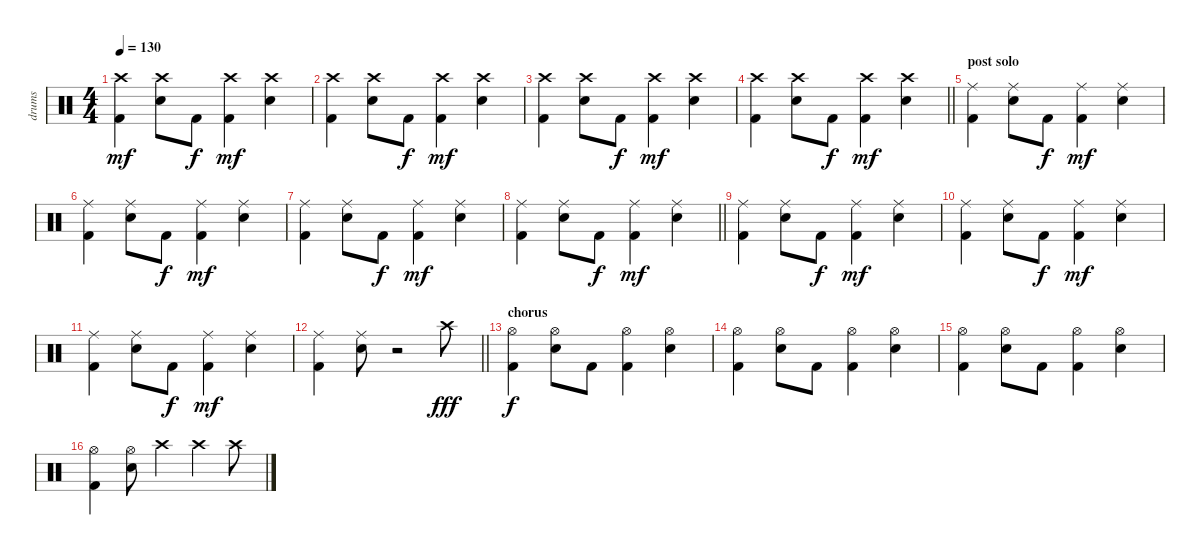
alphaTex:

\track ("drums" "drums") {instrument percussion}
\staff {score}
\articulation defaults
\ts (4 4)
\tempo 130
\clef neutral
\ks c
("Crash high (hit)" "Kick (hit) 2").4{dy mf} ("Crash high (hit)" "Snare (hit) 2").8 "Kick (hit) 2".8{dy f} ("Crash high (hit)" "Kick (hit) 2").4{dy mf} ("Crash high (hit)" "Snare (hit) 2").4 |
("Crash high (hit)" "Kick (hit) 2").4 ("Crash high (hit)" "Snare (hit) 2").8 "Kick (hit) 2".8{dy f} ("Crash high (hit)" "Kick (hit) 2").4{dy mf} ("Crash high (hit)" "Snare (hit) 2").4 |
("Crash high (hit)" "Kick (hit) 2").4 ("Crash high (hit)" "Snare (hit) 2").8 "Kick (hit) 2".8{dy f} ("Crash high (hit)" "Kick (hit) 2").4{dy mf} ("Crash high (hit)" "Snare (hit) 2").4 |
\barLineRight lightlight
("Crash high (hit)" "Kick (hit) 2").4 ("Crash high (hit)" "Snare (hit) 2").8 "Kick (hit) 2".8{dy f} ("Crash high (hit)" "Kick (hit) 2").4{dy mf} ("Crash high (hit)" "Snare (hit) 2").4 |
\section ("" "post solo")
("Ride (middle)" "Kick (hit) 2").4 ("Ride (middle)" "Snare (hit) 2").8 "Kick (hit) 2".8{dy f} ("Ride (middle)" "Kick (hit) 2").4{dy mf} ("Ride (middle)" "Snare (hit) 2").4 |
("Ride (middle)" "Kick (hit) 2").4 ("Ride (middle)" "Snare (hit) 2").8 "Kick (hit) 2".8{dy f} ("Ride (middle)" "Kick (hit) 2").4{dy mf} ("Ride (middle)" "Snare (hit) 2").4 |
("Ride (middle)" "Kick (hit) 2").4 ("Ride (middle)" "Snare (hit) 2").8 "Kick (hit) 2".8{dy f} ("Ride (middle)" "Kick (hit) 2").4{dy mf} ("Ride (middle)" "Snare (hit) 2").4 |
\barLineRight lightlight
("Ride (middle)" "Kick (hit) 2").4 ("Ride (middle)" "Snare (hit) 2").8 "Kick (hit) 2".8{dy f} ("Ride (middle)" "Kick (hit) 2").4{dy mf} ("Ride (middle)" "Snare (hit) 2").4 |
("Ride (middle)" "Kick (hit) 2").4 ("Ride (middle)" "Snare (hit) 2").8 "Kick (hit) 2".8{dy f} ("Ride (middle)" "Kick (hit) 2").4{dy mf} ("Ride (middle)" "Snare (hit) 2").4 |
("Ride (middle)" "Kick (hit) 2").4 ("Ride (middle)" "Snare (hit) 2").8 "Kick (hit) 2".8{dy f} ("Ride (middle)" "Kick (hit) 2").4{dy mf} ("Ride (middle)" "Snare (hit) 2").4 |
("Ride (middle)" "Kick (hit) 2").4 ("Ride (middle)" "Snare (hit) 2").8 "Kick (hit) 2".8{dy f} ("Ride (middle)" "Kick (hit) 2").4{dy mf} ("Ride (middle)" "Snare (hit) 2").4 |
\barLineRight lightlight
("Ride (middle)" "Kick (hit) 2").4 ("Ride (middle)" "Snare (hit) 2").8 r.2 "Crash high (hit)".8{dy fff} |
\section ("" "chorus ")
("Hi-Hat (open)" "Kick (hit) 2").4{dy f} ("Hi-Hat (open)" "Snare (hit) 2").8 "Kick (hit) 2".8 ("Hi-Hat (open)" "Kick (hit) 2").4 ("Hi-Hat (open)" "Snare (hit) 2").4 |
("Hi-Hat (open)" "Kick (hit) 2").4 ("Hi-Hat (open)" "Snare (hit) 2").8 "Kick (hit) 2".8 ("Hi-Hat (open)" "Kick (hit) 2").4 ("Hi-Hat (open)" "Snare (hit) 2").4 |
("Hi-Hat (open)" "Kick (hit) 2").4 ("Hi-Hat (open)" "Snare (hit) 2").8 "Kick (hit) 2".8 ("Hi-Hat (open)" "Kick (hit) 2").4 ("Hi-Hat (open)" "Snare (hit) 2").4 |
("Hi-Hat (open)" "Kick (hit) 2").4 ("Hi-Hat (open)" "Snare (hit) 2").8 "Crash high (hit)".4 "Crash high (hit)".4 "Crash high (hit)".8
